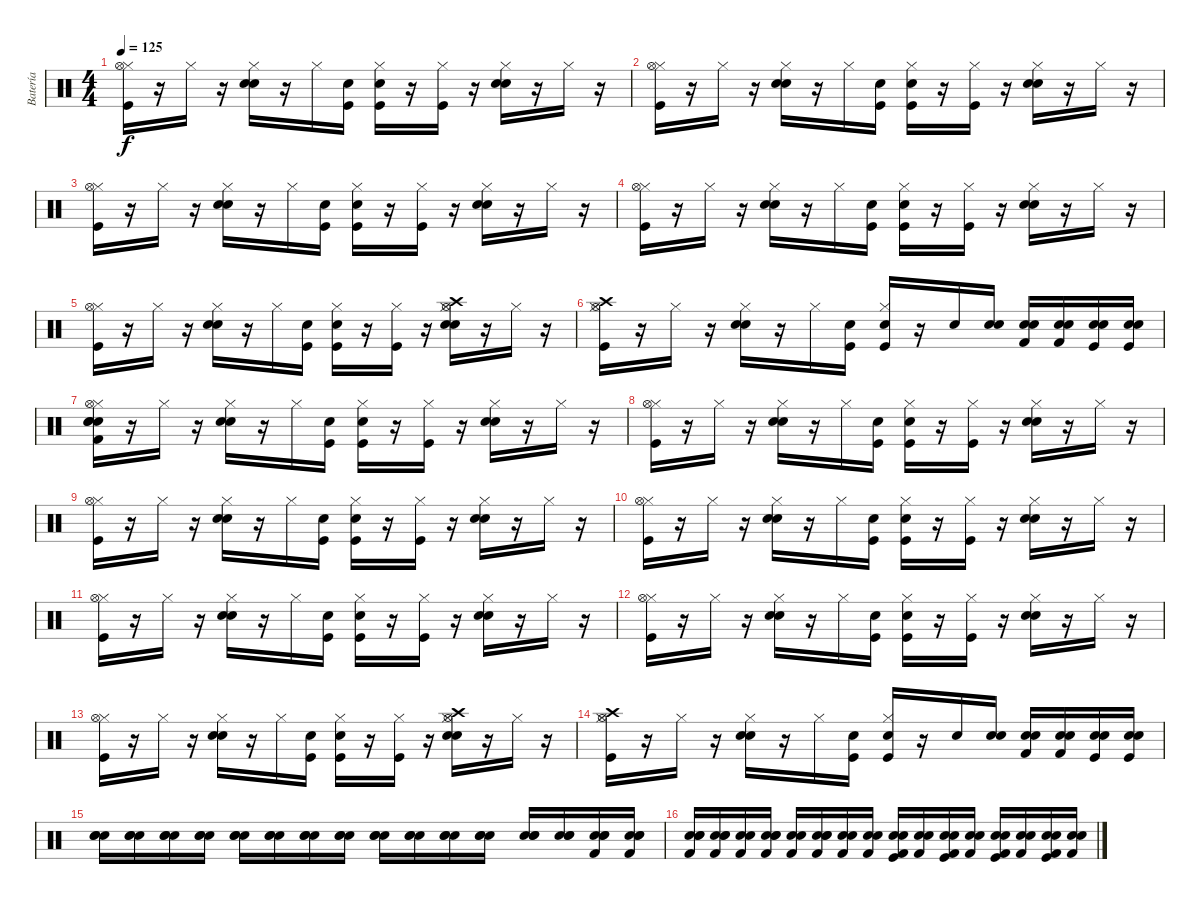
\track ("Batería" "Batería") {instrument percussion}
\staff {score}
\articulation defaults
\ts (4 4)
\tempo 125
\clef neutral
\ks c
("Kick (hit)" "Hi-Hat (closed)" "Hi-Hat (open)").16{dy f} r.16 "Hi-Hat (closed)".16 r.16 ("Snare (hit) 2" "Electric Snare (hit)" "Hi-Hat (closed)").16 r.16 "Hi-Hat (closed)".16 ("Snare (hit)" "Kick (hit)").16 ("Snare (hit)" "Kick (hit)" "Hi-Hat (closed)").16 r.16 ("Kick (hit)" "Hi-Hat (closed)").16 r.16 ("Snare (hit) 2" "Electric Snare (hit)" "Hi-Hat (closed)").16 r.16 "Hi-Hat (closed)".16 r.16 |
("Kick (hit)" "Hi-Hat (closed)" "Hi-Hat (open)").16 r.16 "Hi-Hat (closed)".16 r.16 ("Snare (hit) 2" "Electric Snare (hit)" "Hi-Hat (closed)").16 r.16 "Hi-Hat (closed)".16 ("Snare (hit)" "Kick (hit)").16 ("Snare (hit)" "Kick (hit)" "Hi-Hat (closed)").16 r.16 ("Kick (hit)" "Hi-Hat (closed)").16 r.16 ("Snare (hit) 2" "Electric Snare (hit)" "Hi-Hat (closed)").16 r.16 "Hi-Hat (closed)".16 r.16 |
("Kick (hit)" "Hi-Hat (closed)" "Hi-Hat (open)").16 r.16 "Hi-Hat (closed)".16 r.16 ("Snare (hit) 2" "Electric Snare (hit)" "Hi-Hat (closed)").16 r.16 "Hi-Hat (closed)".16 ("Snare (hit)" "Kick (hit)").16 ("Snare (hit)" "Kick (hit)" "Hi-Hat (closed)").16 r.16 ("Kick (hit)" "Hi-Hat (closed)").16 r.16 ("Snare (hit) 2" "Electric Snare (hit)" "Hi-Hat (closed)").16 r.16 "Hi-Hat (closed)".16 r.16 |
("Kick (hit)" "Hi-Hat (closed)" "Hi-Hat (open)").16 r.16 "Hi-Hat (closed)".16 r.16 ("Snare (hit) 2" "Electric Snare (hit)" "Hi-Hat (closed)").16 r.16 "Hi-Hat (closed)".16 ("Snare (hit)" "Kick (hit)").16 ("Snare (hit)" "Kick (hit)" "Hi-Hat (closed)").16 r.16 ("Kick (hit)" "Hi-Hat (closed)").16 r.16 ("Snare (hit) 2" "Electric Snare (hit)" "Hi-Hat (closed)").16 r.16 "Hi-Hat (closed)".16 r.16 |
("Kick (hit)" "Hi-Hat (closed)" "Hi-Hat (open)").16 r.16 "Hi-Hat (closed)".16 r.16 ("Electric Snare (hit)" "Snare (hit) 2" "Hi-Hat (closed)").16 r.16 "Hi-Hat (closed)".16 ("Snare (hit)" "Kick (hit)").16 ("Snare (hit)" "Kick (hit)" "Hi-Hat (closed)").16 r.16 ("Kick (hit)" "Hi-Hat (closed)").16 r.16 ("Hi-Hat (open)" "Crash high (hit)" "Snare (hit) 2" "Electric Snare (hit)" "Hi-Hat (closed)").16 r.16 "Hi-Hat (closed)".16 r.16 |
("Crash high (hit)" "Kick (hit)" "Hi-Hat (closed)" "Hi-Hat (open)").16 r.16 "Hi-Hat (closed)".16 r.16 ("Snare (hit) 2" "Electric Snare (hit)" "Hi-Hat (closed)").16 r.16 "Hi-Hat (closed)".16 ("Snare (hit)" "Kick (hit)").16 ("Snare (hit)" "Kick (hit)" "Hi-Hat (closed)").16 r.16 "Electric Snare (hit)".16 ("Snare (hit)" "Electric Snare (hit)").16 ("Snare (hit)" "Kick (hit) 2" "Electric Snare (hit)").16 ("Snare (hit)" "Kick (hit) 2" "Electric Snare (hit)").16 ("Snare (hit)" "Snare (hit) 2" "Kick (hit)").16 ("Snare (hit)" "Snare (hit) 2" "Kick (hit)").16 |
("Snare (hit)" "Kick (hit) 2" "Snare (hit) 2" "Electric Snare (hit)" "Hi-Hat (closed)" "Hi-Hat (open)").16 r.16 "Hi-Hat (closed)".16 r.16 ("Snare (hit) 2" "Electric Snare (hit)" "Hi-Hat (closed)").16 r.16 "Hi-Hat (closed)".16 ("Snare (hit)" "Kick (hit)").16 ("Snare (hit)" "Hi-Hat (closed)" "Kick (hit)").16 r.16 ("Hi-Hat (closed)" "Kick (hit)").16 r.16 ("Hi-Hat (closed)" "Snare (hit) 2" "Electric Snare (hit)").16 r.16 "Hi-Hat (closed)".16 r.16 |
("Hi-Hat (closed)" "Kick (hit)" "Hi-Hat (open)").16 r.16 "Hi-Hat (closed)".16 r.16 ("Snare (hit) 2" "Electric Snare (hit)" "Hi-Hat (closed)").16 r.16 "Hi-Hat (closed)".16 ("Snare (hit)" "Kick (hit)").16 ("Snare (hit)" "Hi-Hat (closed)" "Kick (hit)").16 r.16 ("Hi-Hat (closed)" "Kick (hit)").16 r.16 ("Hi-Hat (closed)" "Snare (hit) 2" "Electric Snare (hit)").16 r.16 "Hi-Hat (closed)".16 r.16 |
("Kick (hit)" "Hi-Hat (closed)" "Hi-Hat (open)").16 r.16 "Hi-Hat (closed)".16 r.16 ("Snare (hit) 2" "Electric Snare (hit)" "Hi-Hat (closed)").16 r.16 "Hi-Hat (closed)".16 ("Snare (hit)" "Kick (hit)").16 ("Snare (hit)" "Kick (hit)" "Hi-Hat (closed)").16 r.16 ("Kick (hit)" "Hi-Hat (closed)").16 r.16 ("Snare (hit) 2" "Electric Snare (hit)" "Hi-Hat (closed)").16 r.16 "Hi-Hat (closed)".16 r.16 |
("Kick (hit)" "Hi-Hat (closed)" "Hi-Hat (open)").16 r.16 "Hi-Hat (closed)".16 r.16 ("Snare (hit) 2" "Electric Snare (hit)" "Hi-Hat (closed)").16 r.16 "Hi-Hat (closed)".16 ("Snare (hit)" "Kick (hit)").16 ("Snare (hit)" "Kick (hit)" "Hi-Hat (closed)").16 r.16 ("Kick (hit)" "Hi-Hat (closed)").16 r.16 ("Snare (hit) 2" "Electric Snare (hit)" "Hi-Hat (closed)").16 r.16 "Hi-Hat (closed)".16 r.16 |
("Kick (hit)" "Hi-Hat (closed)" "Hi-Hat (open)").16 r.16 "Hi-Hat (closed)".16 r.16 ("Snare (hit) 2" "Electric Snare (hit)" "Hi-Hat (closed)").16 r.16 "Hi-Hat (closed)".16 ("Snare (hit)" "Kick (hit)").16 ("Snare (hit)" "Kick (hit)" "Hi-Hat (closed)").16 r.16 ("Kick (hit)" "Hi-Hat (closed)").16 r.16 ("Snare (hit) 2" "Electric Snare (hit)" "Hi-Hat (closed)").16 r.16 "Hi-Hat (closed)".16 r.16 |
("Kick (hit)" "Hi-Hat (closed)" "Hi-Hat (open)").16 r.16 "Hi-Hat (closed)".16 r.16 ("Snare (hit) 2" "Electric Snare (hit)" "Hi-Hat (closed)").16 r.16 "Hi-Hat (closed)".16 ("Snare (hit)" "Kick (hit)").16 ("Snare (hit)" "Kick (hit)" "Hi-Hat (closed)").16 r.16 ("Kick (hit)" "Hi-Hat (closed)").16 r.16 ("Snare (hit) 2" "Electric Snare (hit)" "Hi-Hat (closed)").16 r.16 "Hi-Hat (closed)".16 r.16 |
("Kick (hit)" "Hi-Hat (closed)" "Hi-Hat (open)").16 r.16 "Hi-Hat (closed)".16 r.16 ("Electric Snare (hit)" "Snare (hit) 2" "Hi-Hat (closed)").16 r.16 "Hi-Hat (closed)".16 ("Snare (hit)" "Kick (hit)").16 ("Snare (hit)" "Kick (hit)" "Hi-Hat (closed)").16 r.16 ("Kick (hit)" "Hi-Hat (closed)").16 r.16 ("Crash high (hit)" "Hi-Hat (open)" "Snare (hit) 2" "Electric Snare (hit)" "Hi-Hat (closed)").16 r.16 "Hi-Hat (closed)".16 r.16 |
("Crash high (hit)" "Kick (hit)" "Hi-Hat (closed)" "Hi-Hat (open)").16 r.16 "Hi-Hat (closed)".16 r.16 ("Snare (hit) 2" "Electric Snare (hit)" "Hi-Hat (closed)").16 r.16 "Hi-Hat (closed)".16 ("Snare (hit)" "Kick (hit)").16 ("Snare (hit)" "Kick (hit)" "Hi-Hat (closed)").16 r.16 "Electric Snare (hit)".16 ("Snare (hit)" "Electric Snare (hit)").16 ("Snare (hit)" "Kick (hit) 2" "Electric Snare (hit)").16 ("Snare (hit)" "Kick (hit) 2" "Electric Snare (hit)").16 ("Snare (hit)" "Snare (hit) 2" "Kick (hit)").16 ("Snare (hit)" "Snare (hit) 2" "Kick (hit)").16 |
("Snare (hit)" "Electric Snare (hit)" "Snare (hit) 2").16 ("Snare (hit)" "Electric Snare (hit)" "Snare (hit) 2").16 ("Snare (hit)" "Electric Snare (hit)" "Snare (hit) 2").16 ("Snare (hit)" "Electric Snare (hit)" "Snare (hit) 2").16 ("Snare (hit)" "Electric Snare (hit)" "Snare (hit) 2").16 ("Snare (hit)" "Electric Snare (hit)" "Snare (hit) 2").16 ("Snare (hit)" "Electric Snare (hit)" "Snare (hit) 2").16 ("Snare (hit)" "Electric Snare (hit)" "Snare (hit) 2").16 ("Snare (hit)" "Electric Snare (hit)" "Snare (hit) 2").16 ("Snare (hit)" "Electric Snare (hit)" "Snare (hit) 2").16 ("Snare (hit)" "Electric Snare (hit)" "Snare (hit) 2").16 ("Snare (hit)" "Electric Snare (hit)" "Snare (hit) 2").16 ("Snare (hit)" "Electric Snare (hit)" "Snare (hit) 2").16 ("Snare (hit)" "Electric Snare (hit)" "Snare (hit) 2").16 ("Snare (hit)" "Kick (hit) 2" "Electric Snare (hit)" "Snare (hit) 2").16 ("Snare (hit)" "Kick (hit) 2" "Electric Snare (hit)" "Snare (hit) 2").16 |
("Snare (hit)" "Electric Snare (hit)" "Snare (hit) 2" "Kick (hit) 2").16 ("Snare (hit)" "Electric Snare (hit)" "Snare (hit) 2" "Kick (hit) 2").16 ("Snare (hit)" "Snare (hit) 2" "Kick (hit) 2").16 ("Snare (hit)" "Electric Snare (hit)" "Snare (hit) 2" "Kick (hit) 2").16 ("Snare (hit)" "Snare (hit) 2" "Kick (hit) 2").16 ("Snare (hit)" "Electric Snare (hit)" "Snare (hit) 2" "Kick (hit) 2").16 ("Snare (hit)" "Snare (hit) 2" "Kick (hit) 2").16 ("Snare (hit)" "Snare (hit) 2" "Kick (hit) 2").16 ("Snare (hit)" "Snare (hit) 2" "Kick (hit) 2" "Kick (hit)").16 ("Snare (hit)" "Snare (hit) 2" "Kick (hit) 2").16 ("Snare (hit)" "Snare (hit) 2" "Kick (hit) 2" "Kick (hit)").16 ("Snare (hit)" "Snare (hit) 2" "Kick (hit) 2").16 ("Snare (hit)" "Snare (hit) 2" "Kick (hit)" "Kick (hit) 2").16 ("Snare (hit)" "Snare (hit) 2" "Kick (hit) 2").16 ("Snare (hit)" "Snare (hit) 2" "Kick (hit)" "Kick (hit) 2").16 ("Snare (hit)" "Snare (hit) 2" "Kick (hit) 2").16
